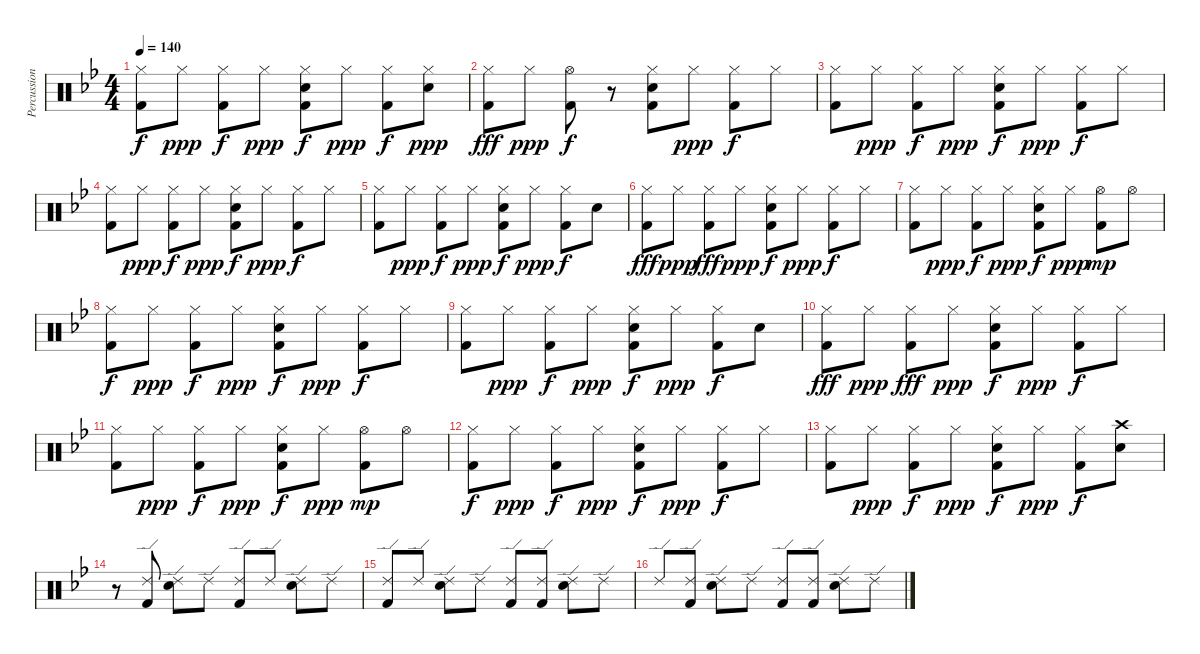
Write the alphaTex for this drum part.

\track ("Percussion" "Percussion") {instrument percussion}
\staff {score}
\articulation defaults
\ts (4 4)
\tempo 140
\clef neutral
\ks bb
("Hi-Hat (closed)" "Kick (hit) 2").8{dy f} "Hi-Hat (closed)".8{dy ppp} ("Hi-Hat (closed)" "Kick (hit) 2").8{dy f} "Hi-Hat (closed)".8{dy ppp} ("Hi-Hat (closed)" "Electric Snare (hit)" "Kick (hit) 2").8{dy f} "Hi-Hat (closed)".8{dy ppp} ("Hi-Hat (closed)" "Kick (hit) 2").8{dy f} ("Hi-Hat (closed)" "Electric Snare (hit)").8{dy ppp} |
("Hi-Hat (closed)" "Kick (hit) 2").8{dy fff} "Hi-Hat (closed)".8{dy ppp} ("Hi-Hat (open)" "Kick (hit) 2").8{dy f} r.8 ("Hi-Hat (closed)" "Electric Snare (hit)" "Kick (hit) 2").8 "Hi-Hat (closed)".8{dy ppp} ("Hi-Hat (closed)" "Kick (hit) 2").8{dy f} "Hi-Hat (closed)".8 |
("Hi-Hat (closed)" "Kick (hit) 2").8 "Hi-Hat (closed)".8{dy ppp} ("Hi-Hat (closed)" "Kick (hit) 2").8{dy f} "Hi-Hat (closed)".8{dy ppp} ("Hi-Hat (closed)" "Electric Snare (hit)" "Kick (hit) 2").8{dy f} "Hi-Hat (closed)".8{dy ppp} ("Hi-Hat (closed)" "Kick (hit) 2").8{dy f} "Hi-Hat (closed)".8 |
("Hi-Hat (closed)" "Kick (hit) 2").8 "Hi-Hat (closed)".8{dy ppp} ("Hi-Hat (closed)" "Kick (hit) 2").8{dy f} "Hi-Hat (closed)".8{dy ppp} ("Hi-Hat (closed)" "Electric Snare (hit)" "Kick (hit) 2").8{dy f} "Hi-Hat (closed)".8{dy ppp} ("Hi-Hat (closed)" "Kick (hit) 2").8{dy f} "Hi-Hat (closed)".8 |
("Hi-Hat (closed)" "Kick (hit) 2").8 "Hi-Hat (closed)".8{dy ppp} ("Hi-Hat (closed)" "Kick (hit) 2").8{dy f} "Hi-Hat (closed)".8{dy ppp} ("Hi-Hat (closed)" "Electric Snare (hit)" "Kick (hit) 2").8{dy f} "Hi-Hat (closed)".8{dy ppp} ("Hi-Hat (closed)" "Kick (hit) 2").8{dy f} "Electric Snare (hit)".8 |
("Hi-Hat (closed)" "Kick (hit) 2").8{dy fff} "Hi-Hat (closed)".8{dy ppp} ("Hi-Hat (closed)" "Kick (hit) 2").8{dy fff} "Hi-Hat (closed)".8{dy ppp} ("Hi-Hat (closed)" "Electric Snare (hit)" "Kick (hit) 2").8{dy f} "Hi-Hat (closed)".8{dy ppp} ("Hi-Hat (closed)" "Kick (hit) 2").8{dy f} "Hi-Hat (closed)".8 |
("Hi-Hat (closed)" "Kick (hit) 2").8 "Hi-Hat (closed)".8{dy ppp} ("Hi-Hat (closed)" "Kick (hit) 2").8{dy f} "Hi-Hat (closed)".8{dy ppp} ("Hi-Hat (closed)" "Electric Snare (hit)" "Kick (hit) 2").8{dy f} "Hi-Hat (closed)".8{dy ppp} ("Hi-Hat (open)" "Kick (hit) 2").8{dy mp} "Hi-Hat (open)".8 |
("Hi-Hat (closed)" "Kick (hit) 2").8{dy f} "Hi-Hat (closed)".8{dy ppp} ("Hi-Hat (closed)" "Kick (hit) 2").8{dy f} "Hi-Hat (closed)".8{dy ppp} ("Hi-Hat (closed)" "Electric Snare (hit)" "Kick (hit) 2").8{dy f} "Hi-Hat (closed)".8{dy ppp} ("Hi-Hat (closed)" "Kick (hit) 2").8{dy f} "Hi-Hat (closed)".8 |
("Hi-Hat (closed)" "Kick (hit) 2").8 "Hi-Hat (closed)".8{dy ppp} ("Hi-Hat (closed)" "Kick (hit) 2").8{dy f} "Hi-Hat (closed)".8{dy ppp} ("Hi-Hat (closed)" "Electric Snare (hit)" "Kick (hit) 2").8{dy f} "Hi-Hat (closed)".8{dy ppp} ("Hi-Hat (closed)" "Kick (hit) 2").8{dy f} "Electric Snare (hit)".8 |
("Hi-Hat (closed)" "Kick (hit) 2").8{dy fff} "Hi-Hat (closed)".8{dy ppp} ("Hi-Hat (closed)" "Kick (hit) 2").8{dy fff} "Hi-Hat (closed)".8{dy ppp} ("Hi-Hat (closed)" "Electric Snare (hit)" "Kick (hit) 2").8{dy f} "Hi-Hat (closed)".8{dy ppp} ("Hi-Hat (closed)" "Kick (hit) 2").8{dy f} "Hi-Hat (closed)".8 |
("Hi-Hat (closed)" "Kick (hit) 2").8 "Hi-Hat (closed)".8{dy ppp} ("Hi-Hat (closed)" "Kick (hit) 2").8{dy f} "Hi-Hat (closed)".8{dy ppp} ("Hi-Hat (closed)" "Electric Snare (hit)" "Kick (hit) 2").8{dy f} "Hi-Hat (closed)".8{dy ppp} ("Hi-Hat (open)" "Kick (hit) 2").8{dy mp} "Hi-Hat (open)".8 |
("Hi-Hat (closed)" "Kick (hit) 2").8{dy f} "Hi-Hat (closed)".8{dy ppp} ("Hi-Hat (closed)" "Kick (hit) 2").8{dy f} "Hi-Hat (closed)".8{dy ppp} ("Hi-Hat (closed)" "Electric Snare (hit)" "Kick (hit) 2").8{dy f} "Hi-Hat (closed)".8{dy ppp} ("Hi-Hat (closed)" "Kick (hit) 2").8{dy f} "Hi-Hat (closed)".8 |
("Hi-Hat (closed)" "Kick (hit) 2").8 "Hi-Hat (closed)".8{dy ppp} ("Hi-Hat (closed)" "Kick (hit) 2").8{dy f} "Hi-Hat (closed)".8{dy ppp} ("Hi-Hat (closed)" "Electric Snare (hit)" "Kick (hit) 2").8{dy f} "Hi-Hat (closed)".8{dy ppp} ("Hi-Hat (closed)" "Kick (hit) 2").8{dy f} ("Crash high (hit)" "Electric Snare (hit)").8 |
r.8 ("Ride (edge) 2" "Kick (hit) 2").8 ("Ride (edge) 2" "Electric Snare (hit)").8 "Ride (edge) 2".8 ("Ride (edge) 2" "Kick (hit) 2").8 "Ride (edge) 2".8 ("Ride (edge) 2" "Electric Snare (hit)").8 "Ride (edge) 2".8 |
("Ride (edge) 2" "Kick (hit) 2").8 "Ride (edge) 2".8 ("Ride (edge) 2" "Electric Snare (hit)").8 "Ride (edge) 2".8 ("Ride (edge) 2" "Kick (hit) 2").8 ("Ride (edge) 2" "Kick (hit) 2").8 ("Ride (edge) 2" "Electric Snare (hit)").8 "Ride (edge) 2".8 |
"Ride (edge) 2".8 ("Ride (edge) 2" "Kick (hit) 2").8 ("Ride (edge) 2" "Electric Snare (hit)").8 "Ride (edge) 2".8 ("Ride (edge) 2" "Kick (hit) 2").8 ("Ride (edge) 2" "Kick (hit) 2").8 ("Ride (edge) 2" "Electric Snare (hit)").8 "Ride (edge) 2".8
